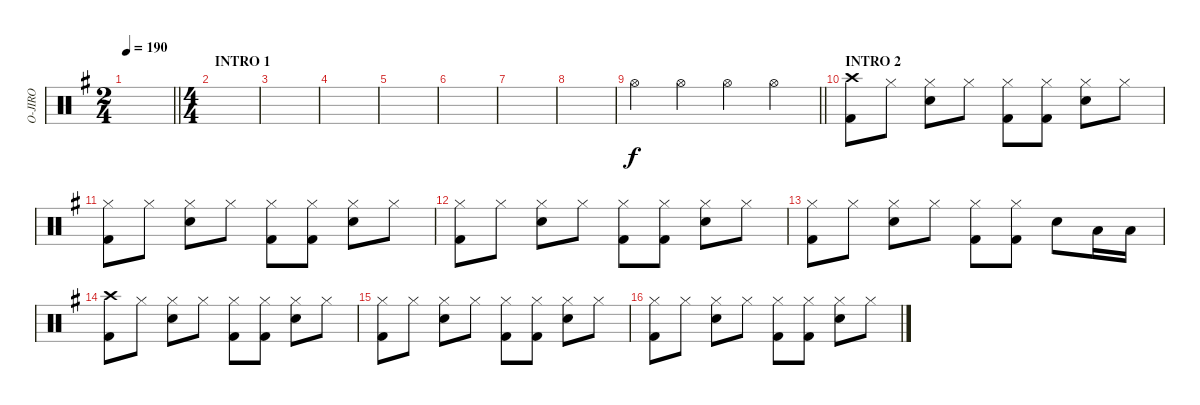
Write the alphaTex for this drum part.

\track ("O-JIRO" "O-JIRO") {instrument percussion}
\staff {score}
\articulation defaults
\ts (2 4)
\tempo 190
\clef neutral
\barLineRight lightlight
\ks g
|
\ts (4 4)
\section ("" "INTRO 1")
|
|
|
|
|
|
|
\barLineRight lightlight "Hi-Hat (open)".4 "Hi-Hat (open)".4 "Hi-Hat (open)".4 "Hi-Hat (open)".4
|
\section ("" "INTRO 2")
("Crash high (hit)" "Kick (hit) 2").8 "Hi-Hat (closed)".8 ("Hi-Hat (closed)" "Snare (hit) 2").8 "Hi-Hat (closed)".8 ("Hi-Hat (closed)" "Kick (hit) 2").8 ("Hi-Hat (closed)" "Kick (hit) 2").8 ("Hi-Hat (closed)" "Snare (hit) 2").8 "Hi-Hat (closed)".8 |
("Hi-Hat (closed)" "Kick (hit) 2").8 "Hi-Hat (closed)".8 ("Hi-Hat (closed)" "Snare (hit) 2").8 "Hi-Hat (closed)".8 ("Hi-Hat (closed)" "Kick (hit) 2").8 ("Hi-Hat (closed)" "Kick (hit) 2").8 ("Hi-Hat (closed)" "Snare (hit) 2").8 "Hi-Hat (closed)".8 |
("Hi-Hat (closed)" "Kick (hit) 2").8 "Hi-Hat (closed)".8 ("Hi-Hat (closed)" "Snare (hit) 2").8 "Hi-Hat (closed)".8 ("Hi-Hat (closed)" "Kick (hit) 2").8 ("Hi-Hat (closed)" "Kick (hit) 2").8 ("Hi-Hat (closed)" "Snare (hit) 2").8 "Hi-Hat (closed)".8 |
("Hi-Hat (closed)" "Kick (hit) 2").8 "Hi-Hat (closed)".8 ("Hi-Hat (closed)" "Snare (hit) 2").8 "Hi-Hat (closed)".8 ("Hi-Hat (closed)" "Kick (hit) 2").8 ("Hi-Hat (closed)" "Kick (hit) 2").8 "Snare (hit) 2".8 "Low Tom (hit)".16 "Low Tom (hit)".16 |
("Crash high (hit)" "Kick (hit) 2").8 "Hi-Hat (closed)".8 ("Hi-Hat (closed)" "Snare (hit) 2").8 "Hi-Hat (closed)".8 ("Hi-Hat (closed)" "Kick (hit) 2").8 ("Hi-Hat (closed)" "Kick (hit) 2").8 ("Hi-Hat (closed)" "Snare (hit) 2").8 "Hi-Hat (closed)".8 |
("Hi-Hat (closed)" "Kick (hit) 2").8 "Hi-Hat (closed)".8 ("Hi-Hat (closed)" "Snare (hit) 2").8 "Hi-Hat (closed)".8 ("Hi-Hat (closed)" "Kick (hit) 2").8 ("Hi-Hat (closed)" "Kick (hit) 2").8 ("Hi-Hat (closed)" "Snare (hit) 2").8 "Hi-Hat (closed)".8 |
("Hi-Hat (closed)" "Kick (hit) 2").8 "Hi-Hat (closed)".8 ("Hi-Hat (closed)" "Snare (hit) 2").8 "Hi-Hat (closed)".8 ("Hi-Hat (closed)" "Kick (hit) 2").8 ("Hi-Hat (closed)" "Kick (hit) 2").8 ("Hi-Hat (closed)" "Snare (hit) 2").8 "Hi-Hat (closed)".8
